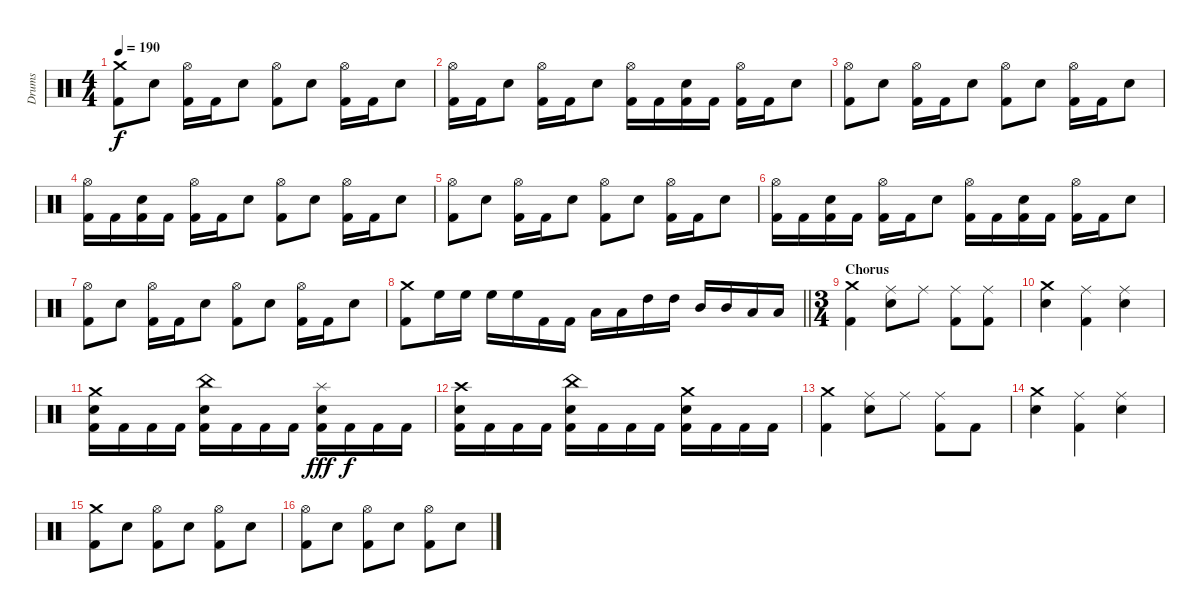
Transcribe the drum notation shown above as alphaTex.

\track ("Drums" "Drums") {instrument percussion}
\staff {score}
\articulation defaults
\ts (4 4)
\tempo 190
\clef neutral
\ks c
("Crash medium (hit)" "Kick (hit) 2").8{dy f} "Electric Snare (hit)".8 ("Hi-Hat (open)" "Kick (hit) 2").16 "Kick (hit) 2".16 "Electric Snare (hit)".8 ("Hi-Hat (open)" "Kick (hit) 2").8 "Electric Snare (hit)".8 ("Hi-Hat (open)" "Kick (hit) 2").16 "Kick (hit) 2".16 "Electric Snare (hit)".8 |
("Hi-Hat (open)" "Kick (hit) 2").16 "Kick (hit) 2".16 "Electric Snare (hit)".8 ("Hi-Hat (open)" "Kick (hit) 2").16 "Kick (hit) 2".16 "Electric Snare (hit)".8 ("Hi-Hat (open)" "Kick (hit) 2").16 "Kick (hit) 2".16 ("Electric Snare (hit)" "Kick (hit) 2").16 "Kick (hit) 2".16 ("Hi-Hat (open)" "Kick (hit) 2").16 "Kick (hit) 2".16 "Electric Snare (hit)".8 |
("Hi-Hat (open)" "Kick (hit) 2").8 "Electric Snare (hit)".8 ("Hi-Hat (open)" "Kick (hit) 2").16 "Kick (hit) 2".16 "Electric Snare (hit)".8 ("Hi-Hat (open)" "Kick (hit) 2").8 "Electric Snare (hit)".8 ("Hi-Hat (open)" "Kick (hit) 2").16 "Kick (hit) 2".16 "Electric Snare (hit)".8 |
("Hi-Hat (open)" "Kick (hit) 2").16 "Kick (hit) 2".16 ("Electric Snare (hit)" "Kick (hit) 2").16 "Kick (hit) 2".16 ("Hi-Hat (open)" "Kick (hit) 2").16 "Kick (hit) 2".16 "Electric Snare (hit)".8 ("Hi-Hat (open)" "Kick (hit) 2").8 "Electric Snare (hit)".8 ("Hi-Hat (open)" "Kick (hit) 2").16 "Kick (hit) 2".16 "Electric Snare (hit)".8 |
("Hi-Hat (open)" "Kick (hit) 2").8 "Electric Snare (hit)".8 ("Hi-Hat (open)" "Kick (hit) 2").16 "Kick (hit) 2".16 "Electric Snare (hit)".8 ("Hi-Hat (open)" "Kick (hit) 2").8 "Electric Snare (hit)".8 ("Hi-Hat (open)" "Kick (hit) 2").16 "Kick (hit) 2".16 "Electric Snare (hit)".8 |
("Hi-Hat (open)" "Kick (hit) 2").16 "Kick (hit) 2".16 ("Electric Snare (hit)" "Kick (hit) 2").16 "Kick (hit) 2".16 ("Hi-Hat (open)" "Kick (hit) 2").16 "Kick (hit) 2".16 "Electric Snare (hit)".8 ("Hi-Hat (open)" "Kick (hit) 2").16 "Kick (hit) 2".16 ("Electric Snare (hit)" "Kick (hit) 2").16 "Kick (hit) 2".16 ("Hi-Hat (open)" "Kick (hit) 2").16 "Kick (hit) 2".16 "Electric Snare (hit)".8 |
("Hi-Hat (open)" "Kick (hit) 2").8 "Electric Snare (hit)".8 ("Hi-Hat (open)" "Kick (hit) 2").16 "Kick (hit) 2".16 "Electric Snare (hit)".8 ("Hi-Hat (open)" "Kick (hit) 2").8 "Electric Snare (hit)".8 ("Hi-Hat (open)" "Kick (hit) 2").16 "Kick (hit) 2".16 "Electric Snare (hit)".8 |
\barLineRight lightlight
("Crash medium (hit)" "Kick (hit) 2").8 "High Floor Tom (hit)".16 "High Floor Tom (hit)".16 "High Floor Tom (hit)".16 "High Floor Tom (hit)".16 "Kick (hit) 2".16 "Kick (hit) 2".16 "Low Tom (hit)".16 "Low Tom (hit)".16 "High Tom (hit)".16 "High Tom (hit)".16 "Mid Tom (hit)".16 "Mid Tom (hit)".16 "Low Tom (hit)".16 "Low Tom (hit)".16 |
\ts (3 4)
\section ("" "Chorus")
("Crash medium (hit)" "Kick (hit) 2").4 ("Ride (middle)" "Electric Snare (hit)").8 "Ride (middle)".8 ("Ride (middle)" "Kick (hit) 2").8 ("Ride (middle)" "Kick (hit) 2").8 |
("Crash medium (hit)" "Electric Snare (hit)").4 ("Ride (middle)" "Kick (hit) 2").4 ("Ride (middle)" "Electric Snare (hit)").4 |
("Crash medium (hit)" "Electric Snare (hit)" "Kick (hit) 2").16 "Kick (hit) 2".16 "Kick (hit) 2".16 "Kick (hit) 2".16 ("China (hit)" "Electric Snare (hit)" "Kick (hit) 2").16 "Kick (hit) 2".16 "Kick (hit) 2".16 "Kick (hit) 2".16 ("Splash (hit)" "Electric Snare (hit)" "Kick (hit) 2").16{dy fff} "Kick (hit) 2".16{dy f} "Kick (hit) 2".16 "Kick (hit) 2".16 |
("Crash high (hit)" "Electric Snare (hit)" "Kick (hit) 2").16 "Kick (hit) 2".16 "Kick (hit) 2".16 "Kick (hit) 2".16 ("China (hit)" "Electric Snare (hit)" "Kick (hit) 2").16 "Kick (hit) 2".16 "Kick (hit) 2".16 "Kick (hit) 2".16 ("Crash medium (hit)" "Electric Snare (hit)" "Kick (hit) 2").16 "Kick (hit) 2".16 "Kick (hit) 2".16 "Kick (hit) 2".16 |
("Crash medium (hit)" "Kick (hit) 2").4 ("Ride (middle)" "Electric Snare (hit)").8 "Ride (middle)".8 ("Ride (middle)" "Kick (hit) 2").8 "Kick (hit) 2".8 |
("Crash medium (hit)" "Electric Snare (hit)").4 ("Ride (middle)" "Kick (hit) 2").4 ("Ride (middle)" "Electric Snare (hit)").4 |
("Crash medium (hit)" "Kick (hit) 2").8 "Electric Snare (hit)".8 ("Hi-Hat (open)" "Kick (hit) 2").8 "Electric Snare (hit)".8 ("Hi-Hat (open)" "Kick (hit) 2").8 "Electric Snare (hit)".8 |
("Hi-Hat (open)" "Kick (hit) 2").8 "Electric Snare (hit)".8 ("Hi-Hat (open)" "Kick (hit) 2").8 "Electric Snare (hit)".8 ("Hi-Hat (open)" "Kick (hit) 2").8 "Electric Snare (hit)".8
